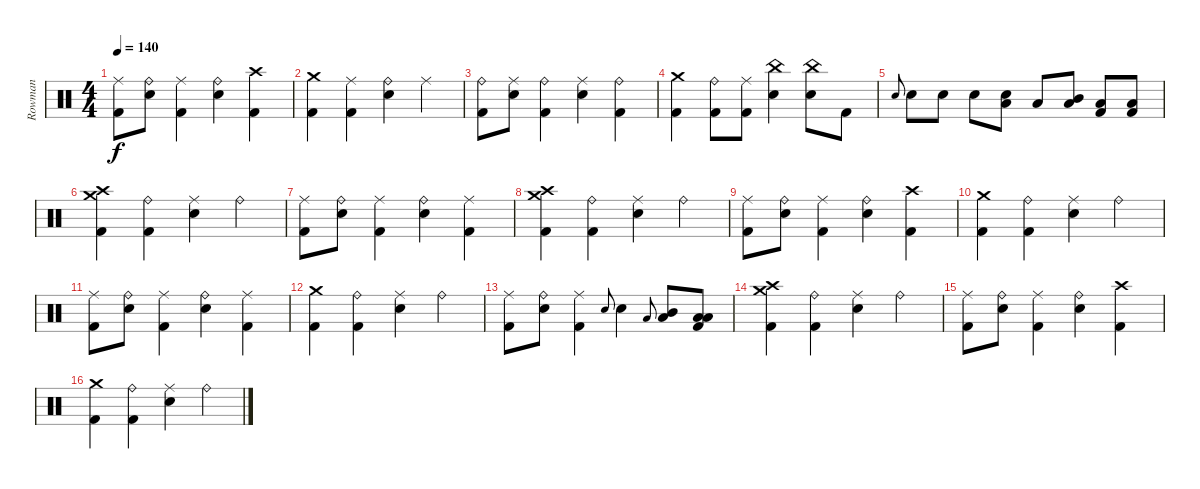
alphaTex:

\track ("Rowman" "Rowman") {instrument percussion}
\staff {score}
\articulation defaults
\ts (4 4)
\tempo 140
\clef neutral
\ks c
("Ride (middle)" "Kick (hit) 2").8{dy f} ("Ride (bell)" "Snare (hit) 2").8 ("Ride (middle)" "Kick (hit) 2").4 ("Ride (bell)" "Snare (hit) 2").4 ("Crash high (hit)" "Kick (hit) 2").4 |
("Crash medium (hit)" "Kick (hit) 2").4 ("Ride (middle)" "Kick (hit) 2").4 ("Ride (bell)" "Snare (hit) 2").4 "Ride (middle)".4 |
("Ride (bell)" "Kick (hit) 2").8 ("Ride (middle)" "Snare (hit) 2").8 ("Ride (bell)" "Kick (hit) 2").4 ("Ride (middle)" "Snare (hit) 2").4 ("Ride (bell)" "Kick (hit) 2").4 |
("Crash medium (hit)" "Kick (hit) 2").4 ("Ride (bell)" "Kick (hit) 2").8 ("Ride (middle)" "Kick (hit) 2").8 ("China (hit)" "Snare (hit) 2").4 ("China (hit)" "Snare (hit) 2").8 "Kick (hit) 2".8 |
"Snare (hit) 2".8{gr onbeat} "Snare (hit) 2".8 "Snare (hit) 2".8 "Snare (hit) 2".8 ("Low Tom (hit)" "Snare (hit) 2").8 "Low Tom (hit)".8 ("Mid Tom (hit)" "Low Tom (hit)").8 ("Low Floor Tom (hit)" "Kick (hit) 2").8 ("Low Floor Tom (hit)" "Kick (hit) 2").8 |
("Crash medium (hit)" "Crash high (hit)" "Kick (hit) 2").4 ("Ride (bell)" "Kick (hit) 2").4 ("Ride (middle)" "Snare (hit) 2").4 "Ride (bell)".4 |
("Ride (middle)" "Kick (hit) 2").8 ("Ride (bell)" "Snare (hit) 2").8 ("Ride (middle)" "Kick (hit) 2").4 ("Ride (bell)" "Snare (hit) 2").4 ("Ride (middle)" "Kick (hit) 2").4 |
("Crash medium (hit)" "Crash high (hit)" "Kick (hit) 2").4 ("Ride (bell)" "Kick (hit) 2").4 ("Ride (middle)" "Snare (hit) 2").4 "Ride (bell)".4 |
("Ride (middle)" "Kick (hit) 2").8 ("Ride (bell)" "Snare (hit) 2").8 ("Ride (middle)" "Kick (hit) 2").4 ("Ride (bell)" "Snare (hit) 2").4 ("Crash high (hit)" "Kick (hit) 2").4 |
("Crash medium (hit)" "Kick (hit) 2").4 ("Ride (bell)" "Kick (hit) 2").4 ("Ride (middle)" "Snare (hit) 2").4 "Ride (bell)".4 |
("Ride (middle)" "Kick (hit) 2").8 ("Ride (bell)" "Snare (hit) 2").8 ("Ride (middle)" "Kick (hit) 2").4 ("Ride (bell)" "Snare (hit) 2").4 ("Ride (middle)" "Kick (hit) 2").4 |
("Crash medium (hit)" "Kick (hit) 2").4 ("Ride (bell)" "Kick (hit) 2").4 ("Ride (middle)" "Snare (hit) 2").4 "Ride (bell)".4 |
("Ride (middle)" "Kick (hit) 2").8 ("Ride (bell)" "Snare (hit) 2").8 ("Ride (middle)" "Kick (hit) 2").4 "Snare (hit) 2".8{gr onbeat} "Snare (hit) 2".4 "Low Tom (hit)".8{gr onbeat} ("Mid Tom (hit)" "Low Tom (hit)").8 ("Low Floor Tom (hit)" "Low Tom (hit)" "Kick (hit) 2").8 |
("Crash medium (hit)" "Crash high (hit)" "Kick (hit) 2").4 ("Ride (bell)" "Kick (hit) 2").4 ("Ride (middle)" "Snare (hit) 2").4 "Ride (bell)".4 |
("Ride (middle)" "Kick (hit) 2").8 ("Ride (bell)" "Snare (hit) 2").8 ("Ride (middle)" "Kick (hit) 2").4 ("Ride (bell)" "Snare (hit) 2").4 ("Crash high (hit)" "Kick (hit) 2").4 |
("Crash medium (hit)" "Kick (hit) 2").4 ("Ride (bell)" "Kick (hit) 2").4 ("Ride (middle)" "Snare (hit) 2").4 "Ride (bell)".4
